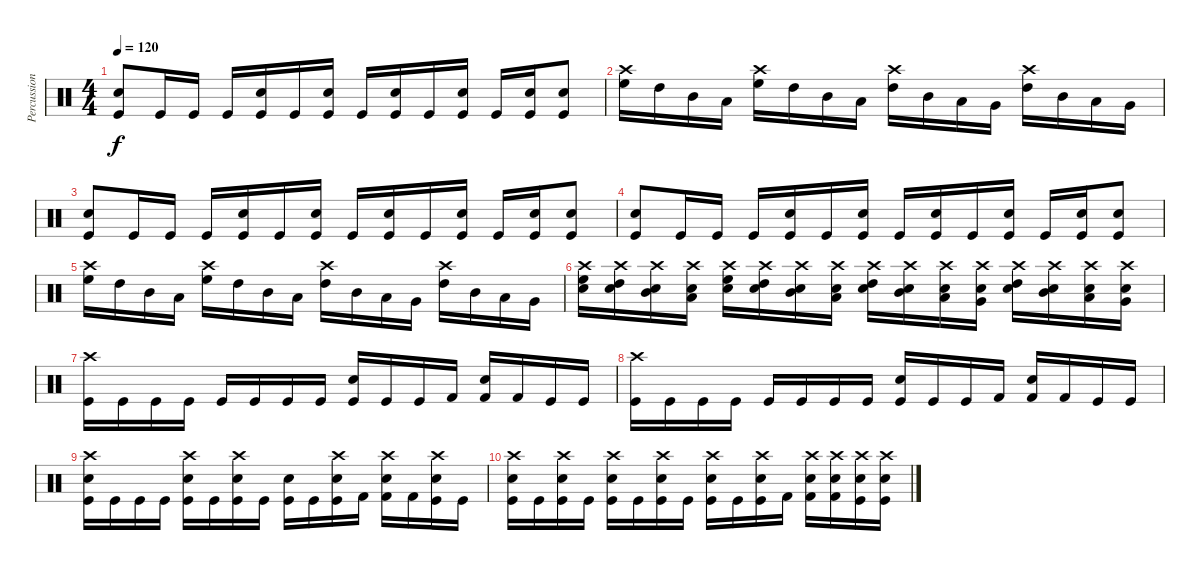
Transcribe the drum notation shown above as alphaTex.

\track ("Percussion" "Percussion") {instrument percussion}
\staff {score}
\articulation defaults
\ts (4 4)
\tempo 120
\clef neutral
\ks c
("Kick (hit)" "Snare (hit) 2").8{dy f} "Kick (hit)".16 "Kick (hit)".16 "Kick (hit)".16 ("Kick (hit)" "Snare (hit) 2").16 "Kick (hit)".16 ("Kick (hit)" "Snare (hit) 2").16 "Kick (hit)".16 ("Kick (hit)" "Snare (hit) 2").16 "Kick (hit)".16 ("Kick (hit)" "Snare (hit) 2").16 "Kick (hit)".16 ("Kick (hit)" "Snare (hit) 2").16 ("Kick (hit)" "Snare (hit) 2").8 |
("High Floor Tom (hit)" "Crash high (hit)").16 "High Tom (hit)".16 "Mid Tom (hit)".16 "Low Tom (hit)".16 ("High Floor Tom (hit)" "Crash high (hit)").16 "High Tom (hit)".16 "Mid Tom (hit)".16 "Low Tom (hit)".16 ("High Tom (hit)" "Crash high (hit)").16 "Mid Tom (hit)".16 "Low Tom (hit)".16 "Very Low Tom (hit)".16 ("High Tom (hit)" "Crash high (hit)").16 "Mid Tom (hit)".16 "Low Tom (hit)".16 "Very Low Tom (hit)".16 |
("Kick (hit)" "Snare (hit) 2").8 "Kick (hit)".16 "Kick (hit)".16 "Kick (hit)".16 ("Kick (hit)" "Snare (hit) 2").16 "Kick (hit)".16 ("Kick (hit)" "Snare (hit) 2").16 "Kick (hit)".16 ("Kick (hit)" "Snare (hit) 2").16 "Kick (hit)".16 ("Kick (hit)" "Snare (hit) 2").16 "Kick (hit)".16 ("Kick (hit)" "Snare (hit) 2").16 ("Kick (hit)" "Snare (hit) 2").8 |
("Kick (hit)" "Snare (hit) 2").8 "Kick (hit)".16 "Kick (hit)".16 "Kick (hit)".16 ("Kick (hit)" "Snare (hit) 2").16 "Kick (hit)".16 ("Kick (hit)" "Snare (hit) 2").16 "Kick (hit)".16 ("Kick (hit)" "Snare (hit) 2").16 "Kick (hit)".16 ("Kick (hit)" "Snare (hit) 2").16 "Kick (hit)".16 ("Kick (hit)" "Snare (hit) 2").16 ("Kick (hit)" "Snare (hit) 2").8 |
("High Floor Tom (hit)" "Crash high (hit)").16 "High Tom (hit)".16 "Mid Tom (hit)".16 "Low Tom (hit)".16 ("High Floor Tom (hit)" "Crash high (hit)").16 "High Tom (hit)".16 "Mid Tom (hit)".16 "Low Tom (hit)".16 ("High Tom (hit)" "Crash high (hit)").16 "Mid Tom (hit)".16 "Low Tom (hit)".16 "Very Low Tom (hit)".16 ("High Tom (hit)" "Crash high (hit)").16 "Mid Tom (hit)".16 "Low Tom (hit)".16 "Very Low Tom (hit)".16 |
("High Floor Tom (hit)" "Crash high (hit)" "Snare (hit) 2").16 ("High Tom (hit)" "Crash high (hit)" "Snare (hit) 2").16 ("Mid Tom (hit)" "Crash high (hit)" "Snare (hit) 2").16 ("Low Tom (hit)" "Crash high (hit)" "Snare (hit) 2").16 ("High Floor Tom (hit)" "Crash high (hit)" "Snare (hit) 2").16 ("High Tom (hit)" "Crash high (hit)" "Snare (hit) 2").16 ("Mid Tom (hit)" "Crash high (hit)" "Snare (hit) 2").16 ("Low Tom (hit)" "Crash high (hit)" "Snare (hit) 2").16 ("High Tom (hit)" "Crash high (hit)" "Snare (hit) 2").16 ("Mid Tom (hit)" "Crash high (hit)" "Snare (hit) 2").16 ("Low Tom (hit)" "Crash high (hit)" "Snare (hit) 2").16 ("Very Low Tom (hit)" "Crash high (hit)" "Snare (hit) 2").16 ("High Tom (hit)" "Crash high (hit)" "Snare (hit) 2").16 ("Mid Tom (hit)" "Crash high (hit)" "Snare (hit) 2").16 ("Low Tom (hit)" "Crash high (hit)" "Snare (hit) 2").16 ("Very Low Tom (hit)" "Crash high (hit)" "Snare (hit) 2").16 |
("Crash high (hit)" "Kick (hit)").16 "Kick (hit)".16 "Kick (hit)".16 "Kick (hit)".16 "Kick (hit)".16 "Kick (hit)".16 "Kick (hit)".16 "Kick (hit)".16 ("Snare (hit) 2" "Kick (hit)").16 "Kick (hit)".16 "Kick (hit)".16 "Kick (hit) 2".16 ("Snare (hit) 2" "Kick (hit) 2").16 "Kick (hit) 2".16 "Kick (hit)".16 "Kick (hit)".16 |
("Crash high (hit)" "Kick (hit)").16 "Kick (hit)".16 "Kick (hit)".16 "Kick (hit)".16 "Kick (hit)".16 "Kick (hit)".16 "Kick (hit)".16 "Kick (hit)".16 ("Snare (hit) 2" "Kick (hit)").16 "Kick (hit)".16 "Kick (hit)".16 "Kick (hit) 2".16 ("Snare (hit) 2" "Kick (hit) 2").16 "Kick (hit) 2".16 "Kick (hit)".16 "Kick (hit)".16 |
("Snare (hit) 2" "Kick (hit)" "Crash high (hit)").16 "Kick (hit)".16 "Kick (hit)".16 "Kick (hit)".16 ("Snare (hit) 2" "Kick (hit)" "Crash high (hit)").16 "Kick (hit)".16 ("Snare (hit) 2" "Kick (hit)" "Crash high (hit)").16 "Kick (hit)".16 ("Snare (hit) 2" "Kick (hit)").16 "Kick (hit)".16 ("Snare (hit) 2" "Kick (hit)" "Crash high (hit)").16 "Kick (hit) 2".16 ("Snare (hit) 2" "Kick (hit) 2" "Crash high (hit)").16 "Kick (hit) 2".16 ("Snare (hit) 2" "Kick (hit)" "Crash high (hit)").16 "Kick (hit)".16 |
("Snare (hit) 2" "Kick (hit)" "Crash high (hit)").16 "Kick (hit)".16 ("Snare (hit) 2" "Kick (hit)" "Crash high (hit)").16 "Kick (hit)".16 ("Snare (hit) 2" "Kick (hit)" "Crash high (hit)").16 "Kick (hit)".16 ("Snare (hit) 2" "Kick (hit)" "Crash high (hit)").16 "Kick (hit)".16 ("Snare (hit) 2" "Kick (hit)" "Crash high (hit)").16 "Kick (hit)".16 ("Snare (hit) 2" "Kick (hit)" "Crash high (hit)").16 "Kick (hit) 2".16 ("Snare (hit) 2" "Kick (hit) 2" "Crash high (hit)").16 ("Snare (hit) 2" "Kick (hit) 2" "Crash high (hit)").16 ("Snare (hit) 2" "Kick (hit)" "Crash high (hit)").16 ("Snare (hit) 2" "Kick (hit)" "Crash high (hit)").16
